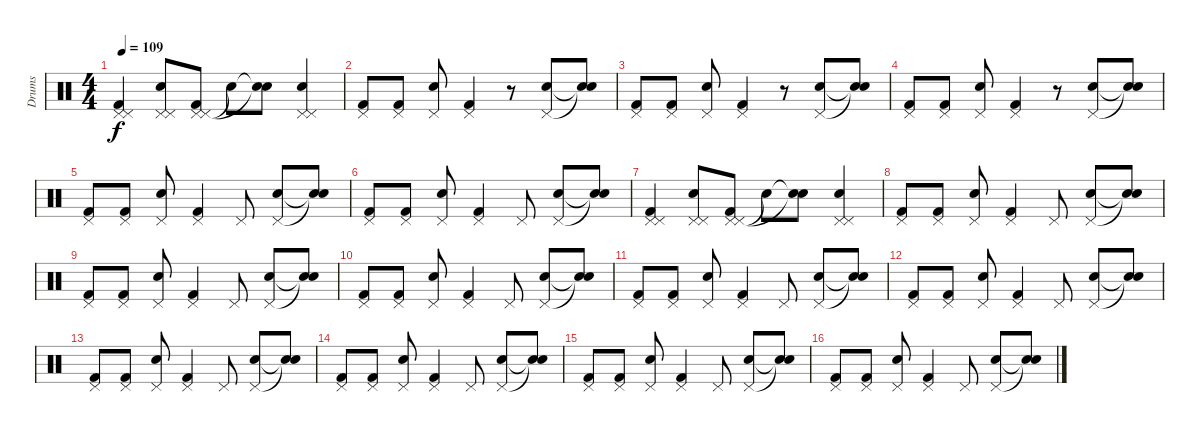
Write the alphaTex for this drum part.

\track ("Drums" "Drums") {instrument percussion}
\staff {score}
\articulation defaults
\ts (4 4)
\tempo 109
\clef neutral
\ks c
("Pedal Hi-Hat (hit)" "Pedal Hi-Hat (hit)" "Kick (hit) 2").4{dy f} ("Pedal Hi-Hat (hit)" "Pedal Hi-Hat (hit)" "Snare (hit) 2").8 ("Pedal Hi-Hat (hit)" "Pedal Hi-Hat (hit)" "Kick (hit) 2").8 "Snare (hit)"{t}.8 ("Snare (hit)"{t} "Snare (hit)"{t}).8 ("Pedal Hi-Hat (hit)" "Pedal Hi-Hat (hit)" "Snare (hit) 2").4 |
("Pedal Hi-Hat (hit)" "Kick (hit) 2").8 ("Pedal Hi-Hat (hit)" "Kick (hit) 2").8 ("Pedal Hi-Hat (hit)" "Snare (hit) 2").8 ("Pedal Hi-Hat (hit)" "Kick (hit) 2").4 r.8 ("Pedal Hi-Hat (hit)" "Snare (hit) 2").8 ("Snare (hit)"{t} "Snare (hit)"{t}).8 |
("Pedal Hi-Hat (hit)" "Kick (hit) 2").8 ("Pedal Hi-Hat (hit)" "Kick (hit) 2").8 ("Pedal Hi-Hat (hit)" "Snare (hit) 2").8 ("Pedal Hi-Hat (hit)" "Kick (hit) 2").4 r.8 ("Pedal Hi-Hat (hit)" "Snare (hit) 2").8 ("Snare (hit)"{t} "Snare (hit)"{t}).8 |
("Pedal Hi-Hat (hit)" "Kick (hit) 2").8 ("Pedal Hi-Hat (hit)" "Kick (hit) 2").8 ("Pedal Hi-Hat (hit)" "Snare (hit) 2").8 ("Pedal Hi-Hat (hit)" "Kick (hit) 2").4 r.8 ("Pedal Hi-Hat (hit)" "Snare (hit) 2").8 ("Snare (hit)"{t} "Snare (hit)"{t}).8 |
("Pedal Hi-Hat (hit)" "Kick (hit) 2").8 ("Pedal Hi-Hat (hit)" "Kick (hit) 2").8 ("Pedal Hi-Hat (hit)" "Snare (hit) 2").8 ("Pedal Hi-Hat (hit)" "Kick (hit) 2").4 "Pedal Hi-Hat (hit)".8 ("Pedal Hi-Hat (hit)" "Snare (hit) 2").8 ("Snare (hit)"{t} "Snare (hit)"{t}).8 |
("Pedal Hi-Hat (hit)" "Kick (hit) 2").8 ("Pedal Hi-Hat (hit)" "Kick (hit) 2").8 ("Pedal Hi-Hat (hit)" "Snare (hit) 2").8 ("Pedal Hi-Hat (hit)" "Kick (hit) 2").4 "Pedal Hi-Hat (hit)".8 ("Pedal Hi-Hat (hit)" "Snare (hit) 2").8 ("Snare (hit)"{t} "Snare (hit)"{t}).8 |
("Pedal Hi-Hat (hit)" "Pedal Hi-Hat (hit)" "Kick (hit) 2").4 ("Pedal Hi-Hat (hit)" "Pedal Hi-Hat (hit)" "Snare (hit) 2").8 ("Pedal Hi-Hat (hit)" "Pedal Hi-Hat (hit)" "Kick (hit) 2").8 "Snare (hit)"{t}.8 ("Snare (hit)"{t} "Snare (hit)"{t}).8 ("Pedal Hi-Hat (hit)" "Pedal Hi-Hat (hit)" "Snare (hit) 2").4 |
("Pedal Hi-Hat (hit)" "Kick (hit) 2").8 ("Pedal Hi-Hat (hit)" "Kick (hit) 2").8 ("Pedal Hi-Hat (hit)" "Snare (hit) 2").8 ("Pedal Hi-Hat (hit)" "Kick (hit) 2").4 "Pedal Hi-Hat (hit)".8 ("Pedal Hi-Hat (hit)" "Snare (hit) 2").8 ("Snare (hit)"{t} "Snare (hit)"{t}).8 |
("Pedal Hi-Hat (hit)" "Kick (hit) 2").8 ("Pedal Hi-Hat (hit)" "Kick (hit) 2").8 ("Pedal Hi-Hat (hit)" "Snare (hit) 2").8 ("Pedal Hi-Hat (hit)" "Kick (hit) 2").4 "Pedal Hi-Hat (hit)".8 ("Pedal Hi-Hat (hit)" "Snare (hit) 2").8 ("Snare (hit)"{t} "Snare (hit)"{t}).8 |
("Pedal Hi-Hat (hit)" "Kick (hit) 2").8 ("Pedal Hi-Hat (hit)" "Kick (hit) 2").8 ("Pedal Hi-Hat (hit)" "Snare (hit) 2").8 ("Pedal Hi-Hat (hit)" "Kick (hit) 2").4 "Pedal Hi-Hat (hit)".8 ("Pedal Hi-Hat (hit)" "Snare (hit) 2").8 ("Snare (hit)"{t} "Snare (hit)"{t}).8 |
("Pedal Hi-Hat (hit)" "Kick (hit) 2").8 ("Pedal Hi-Hat (hit)" "Kick (hit) 2").8 ("Pedal Hi-Hat (hit)" "Snare (hit) 2").8 ("Pedal Hi-Hat (hit)" "Kick (hit) 2").4 "Pedal Hi-Hat (hit)".8 ("Pedal Hi-Hat (hit)" "Snare (hit) 2").8 ("Snare (hit)"{t} "Snare (hit)"{t}).8 |
("Pedal Hi-Hat (hit)" "Kick (hit) 2").8 ("Pedal Hi-Hat (hit)" "Kick (hit) 2").8 ("Pedal Hi-Hat (hit)" "Snare (hit) 2").8 ("Pedal Hi-Hat (hit)" "Kick (hit) 2").4 "Pedal Hi-Hat (hit)".8 ("Pedal Hi-Hat (hit)" "Snare (hit) 2").8 ("Snare (hit)"{t} "Snare (hit)"{t}).8 |
("Pedal Hi-Hat (hit)" "Kick (hit) 2").8 ("Pedal Hi-Hat (hit)" "Kick (hit) 2").8 ("Pedal Hi-Hat (hit)" "Snare (hit) 2").8 ("Pedal Hi-Hat (hit)" "Kick (hit) 2").4 "Pedal Hi-Hat (hit)".8 ("Pedal Hi-Hat (hit)" "Snare (hit) 2").8 ("Snare (hit)"{t} "Snare (hit)"{t}).8 |
("Pedal Hi-Hat (hit)" "Kick (hit) 2").8 ("Pedal Hi-Hat (hit)" "Kick (hit) 2").8 ("Pedal Hi-Hat (hit)" "Snare (hit) 2").8 ("Pedal Hi-Hat (hit)" "Kick (hit) 2").4 "Pedal Hi-Hat (hit)".8 ("Pedal Hi-Hat (hit)" "Snare (hit) 2").8 ("Snare (hit)"{t} "Snare (hit)"{t}).8 |
("Pedal Hi-Hat (hit)" "Kick (hit) 2").8 ("Pedal Hi-Hat (hit)" "Kick (hit) 2").8 ("Pedal Hi-Hat (hit)" "Snare (hit) 2").8 ("Pedal Hi-Hat (hit)" "Kick (hit) 2").4 "Pedal Hi-Hat (hit)".8 ("Pedal Hi-Hat (hit)" "Snare (hit) 2").8 ("Snare (hit)"{t} "Snare (hit)"{t}).8 |
("Pedal Hi-Hat (hit)" "Kick (hit) 2").8 ("Pedal Hi-Hat (hit)" "Kick (hit) 2").8 ("Pedal Hi-Hat (hit)" "Snare (hit) 2").8 ("Pedal Hi-Hat (hit)" "Kick (hit) 2").4 "Pedal Hi-Hat (hit)".8 ("Pedal Hi-Hat (hit)" "Snare (hit) 2").8 ("Snare (hit)"{t} "Snare (hit)"{t}).8
